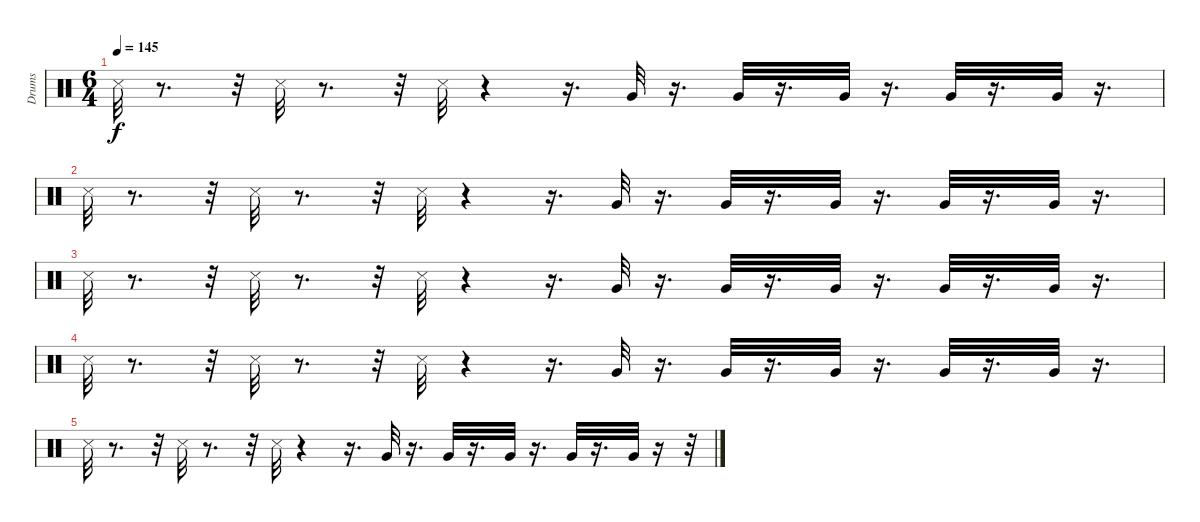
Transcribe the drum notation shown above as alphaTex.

\track ("Drums" "Drums") {instrument percussion}
\staff {score}
\articulation defaults
\ts (6 4)
\tempo 145
\clef neutral
\ks c "Metronome (hit)".32{dy f}
r.8{d} r.32 "Metronome (hit)".32 r.8{d} r.32 "Metronome (hit)".32 r.4 r.16{d} "Very Low Tom (hit)".32 r.16{d} "Very Low Tom (hit)".32 r.16{d} "Very Low Tom (hit)".32 r.16{d} "Very Low Tom (hit)".32 r.16{d} "Very Low Tom (hit)".32 r.16{d} |
"Metronome (hit)".32 r.8{d} r.32 "Metronome (hit)".32 r.8{d} r.32 "Metronome (hit)".32 r.4 r.16{d} "Very Low Tom (hit)".32 r.16{d} "Very Low Tom (hit)".32 r.16{d} "Very Low Tom (hit)".32 r.16{d} "Very Low Tom (hit)".32 r.16{d} "Very Low Tom (hit)".32 r.16{d} |
"Metronome (hit)".32 r.8{d} r.32 "Metronome (hit)".32 r.8{d} r.32 "Metronome (hit)".32 r.4 r.16{d} "Very Low Tom (hit)".32 r.16{d} "Very Low Tom (hit)".32 r.16{d} "Very Low Tom (hit)".32 r.16{d} "Very Low Tom (hit)".32 r.16{d} "Very Low Tom (hit)".32 r.16{d} |
"Metronome (hit)".32 r.8{d} r.32 "Metronome (hit)".32 r.8{d} r.32 "Metronome (hit)".32 r.4 r.16{d} "Very Low Tom (hit)".32 r.16{d} "Very Low Tom (hit)".32 r.16{d} "Very Low Tom (hit)".32 r.16{d} "Very Low Tom (hit)".32 r.16{d} "Very Low Tom (hit)".32 r.16{d} |
"Metronome (hit)".32 r.8{d} r.32 "Metronome (hit)".32 r.8{d} r.32 "Metronome (hit)".32 r.4 r.16{d} "Very Low Tom (hit)".32 r.16{d} "Very Low Tom (hit)".32 r.16{d} "Very Low Tom (hit)".32 r.16{d} "Very Low Tom (hit)".32 r.16{d} "Very Low Tom (hit)".32 r.16 r.32
